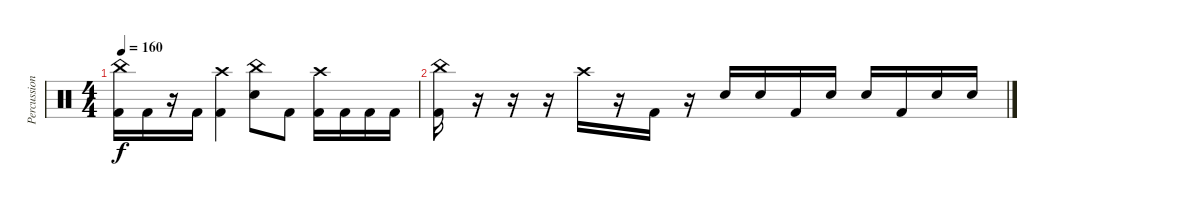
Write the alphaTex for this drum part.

\track ("Percussion" "Percussion") {instrument percussion}
\staff {score}
\articulation defaults
\ts (4 4)
\tempo 160
\clef neutral
\ks c
("China (hit)" "Kick (hit) 2").16{dy f} "Kick (hit) 2".16 r.16 "Kick (hit) 2".16 ("Crash high (hit)" "Kick (hit) 2").4 ("China (hit)" "Electric Snare (hit)").8 "Kick (hit) 2".8 ("Crash high (hit)" "Kick (hit) 2").16 "Kick (hit) 2".16 "Kick (hit) 2".16 "Kick (hit) 2".16 |
("China (hit)" "Kick (hit) 2").16 r.16 r.16 r.16 "Crash high (hit)".16 r.16 "Kick (hit) 2".16 r.16 "Electric Snare (hit)".16 "Electric Snare (hit)".16 "Kick (hit) 2".16 "Electric Snare (hit)".16 "Electric Snare (hit)".16 "Kick (hit) 2".16 "Electric Snare (hit)".16 "Electric Snare (hit)".16
